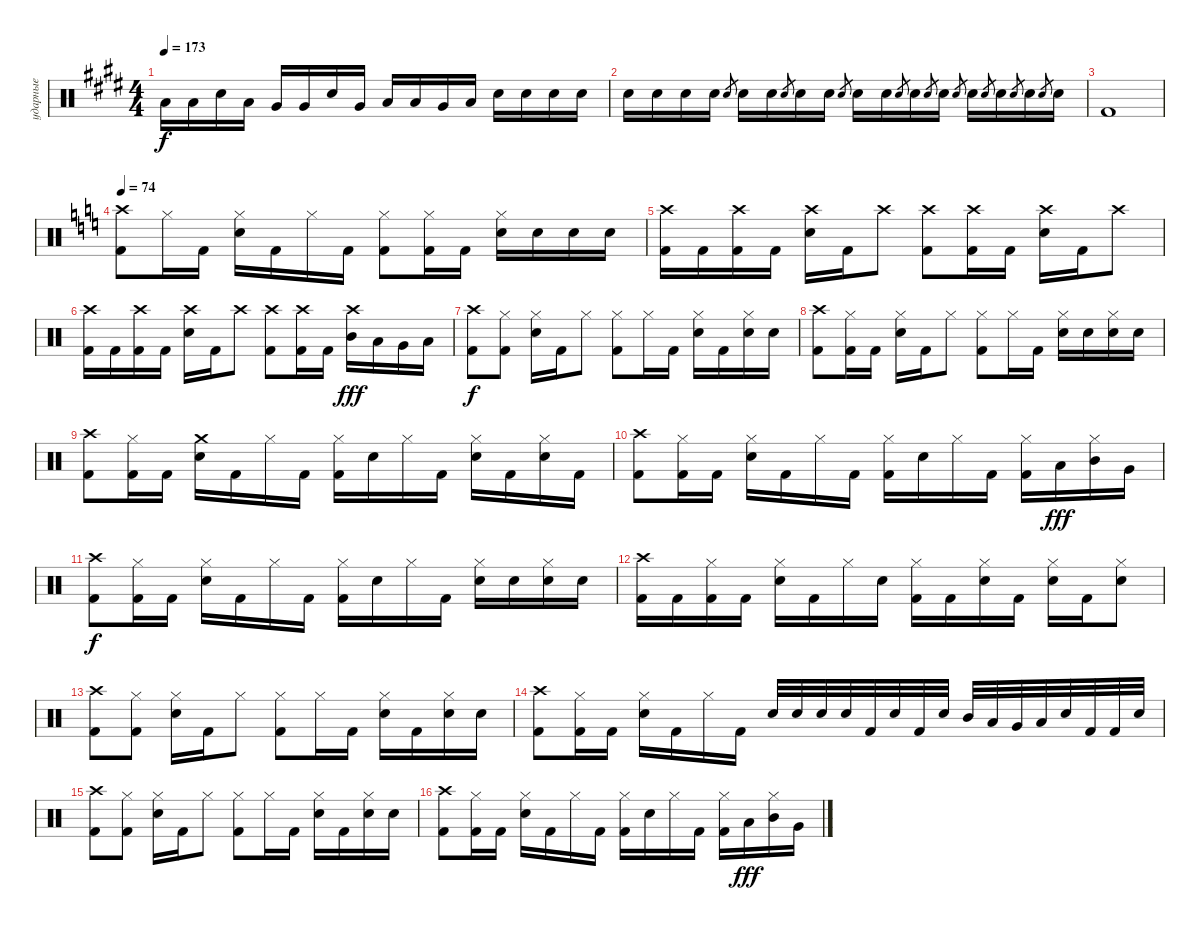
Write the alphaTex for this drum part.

\track ("ударные" "ударные") {instrument percussion}
\staff {score}
\articulation defaults
\ts (4 4)
\tempo 173
\clef neutral
\ks c#minor "Low Tom (hit)".16{dy f} "Low Tom (hit)".16 "Snare (hit) 2".16 "Low Tom (hit)".16 "Very Low Tom (hit)".16 "Very Low Tom (hit)".16 "Snare (hit) 2".16 "Very Low Tom (hit)".16 "Low Floor Tom (hit)".16 "Low Floor Tom (hit)".16 "Very Low Tom (hit)".16 "Low Floor Tom (hit)".16 "Snare (hit) 2".16 "Snare (hit) 2".16 "Snare (hit) 2".16 "Snare (hit) 2".16
|
"Snare (hit) 2".16 "Snare (hit) 2".16 "Snare (hit) 2".16 "Snare (hit) 2".16 "Snare (hit) 2".8{gr} "Snare (hit) 2".16 "Snare (hit) 2".16 "Snare (hit) 2".8{gr} "Snare (hit) 2".16 "Snare (hit) 2".16 "Snare (hit) 2".8{gr} "Snare (hit) 2".16 "Snare (hit) 2".16 "Snare (hit) 2".8{gr} "Snare (hit) 2".16 "Snare (hit) 2".8{gr} "Snare (hit) 2".16 "Snare (hit) 2".8{gr} "Snare (hit) 2".16 "Snare (hit) 2".8{gr} "Snare (hit) 2".16 "Snare (hit) 2".8{gr} "Snare (hit) 2".16 "Snare (hit) 2".8{gr} "Snare (hit) 2".16 |
"Kick (hit) 2".1 |
\tempo 74
\ks aminor
("Kick (hit) 2" "Crash high (hit)").8 "Hi-Hat (closed)".16 "Kick (hit) 2".16 ("Snare (hit) 2" "Hi-Hat (closed)").16 "Kick (hit) 2".16 "Hi-Hat (closed)".16 "Kick (hit) 2".16 ("Kick (hit) 2" "Hi-Hat (closed)").8 ("Kick (hit) 2" "Hi-Hat (closed)").16 "Kick (hit) 2".16 ("Snare (hit) 2" "Hi-Hat (closed)").16 "Snare (hit) 2".16 "Snare (hit) 2".16 "Snare (hit) 2".16 |
("Kick (hit) 2" "Crash high (hit)").16 "Kick (hit) 2".16 ("Crash high (hit)" "Kick (hit) 2").16 "Kick (hit) 2".16 ("Crash high (hit)" "Snare (hit) 2").16 "Kick (hit) 2".16 "Crash high (hit)".8 ("Kick (hit) 2" "Crash high (hit)").8 ("Kick (hit) 2" "Crash high (hit)").16 "Kick (hit) 2".16 ("Snare (hit) 2" "Crash high (hit)").16 "Kick (hit) 2".16 "Crash high (hit)".8 |
("Kick (hit) 2" "Crash high (hit)").16 "Kick (hit) 2".16 ("Crash high (hit)" "Kick (hit) 2").16 "Kick (hit) 2".16 ("Crash high (hit)" "Snare (hit) 2").16 "Kick (hit) 2".16 "Crash high (hit)".8 ("Kick (hit) 2" "Crash high (hit)").8 ("Kick (hit) 2" "Crash high (hit)").16 "Kick (hit) 2".16 ("Mid Tom (hit)" "Crash high (hit)").16{dy fff} "Low Tom (hit)".16 "Very Low Tom (hit)".16 "Low Floor Tom (hit)".16 |
("Kick (hit) 2" "Crash high (hit)").8{dy f} ("Kick (hit) 2" "Hi-Hat (closed)").8 ("Snare (hit) 2" "Hi-Hat (closed)").16 "Kick (hit) 2".16 "Hi-Hat (closed)".8 ("Kick (hit) 2" "Hi-Hat (closed)").8 "Hi-Hat (closed)".16 "Kick (hit) 2".16 ("Snare (hit) 2" "Hi-Hat (closed)").16 "Kick (hit) 2".16 ("Snare (hit) 2" "Hi-Hat (closed)").16 "Snare (hit) 2".16 |
("Kick (hit) 2" "Crash high (hit)").8 ("Kick (hit) 2" "Hi-Hat (closed)").16 "Kick (hit) 2".16 ("Snare (hit) 2" "Hi-Hat (closed)").16 "Kick (hit) 2".16 "Hi-Hat (closed)".8 ("Kick (hit) 2" "Hi-Hat (closed)").8 "Hi-Hat (closed)".16 "Kick (hit) 2".16 ("Snare (hit) 2" "Hi-Hat (closed)").16 "Snare (hit) 2".16 ("Snare (hit) 2" "Hi-Hat (closed)").16 "Snare (hit) 2".16 |
("Kick (hit) 2" "Crash high (hit)").8 ("Kick (hit) 2" "Hi-Hat (closed)").16 "Kick (hit) 2".16 ("Snare (hit) 2" "Crash medium (hit)").16 "Kick (hit) 2".16 "Hi-Hat (closed)".16 "Kick (hit) 2".16 ("Kick (hit) 2" "Hi-Hat (closed)").16 "Snare (hit) 2".16 "Hi-Hat (closed)".16 "Kick (hit) 2".16 ("Snare (hit) 2" "Hi-Hat (closed)").16 "Kick (hit) 2".16 ("Snare (hit) 2" "Hi-Hat (closed)").16 "Kick (hit) 2".16 |
("Kick (hit) 2" "Crash high (hit)").8 ("Kick (hit) 2" "Hi-Hat (closed)").16 "Kick (hit) 2".16 ("Snare (hit) 2" "Hi-Hat (closed)").16 "Kick (hit) 2".16 "Hi-Hat (closed)".16 "Kick (hit) 2".16 ("Kick (hit) 2" "Hi-Hat (closed)").16 "Snare (hit) 2".16 "Hi-Hat (closed)".16 "Kick (hit) 2".16 ("Kick (hit) 2" "Hi-Hat (closed)").16 "Low Tom (hit)".16{dy fff} ("Mid Tom (hit)" "Hi-Hat (closed)").16 "Very Low Tom (hit)".16 |
("Kick (hit) 2" "Crash high (hit)").8{dy f} ("Kick (hit) 2" "Hi-Hat (closed)").16 "Kick (hit) 2".16 ("Snare (hit) 2" "Hi-Hat (closed)").16 "Kick (hit) 2".16 "Hi-Hat (closed)".16 "Kick (hit) 2".16 ("Kick (hit) 2" "Hi-Hat (closed)").16 "Snare (hit) 2".16 "Hi-Hat (closed)".16 "Kick (hit) 2".16 ("Snare (hit) 2" "Hi-Hat (closed)").16 "Snare (hit) 2".16 ("Snare (hit) 2" "Hi-Hat (closed)").16 "Snare (hit) 2".16 |
("Kick (hit) 2" "Crash high (hit)").16 "Kick (hit) 2".16 ("Kick (hit) 2" "Hi-Hat (closed)").16 "Kick (hit) 2".16 ("Snare (hit) 2" "Hi-Hat (closed)").16 "Kick (hit) 2".16 "Hi-Hat (closed)".16 "Snare (hit) 2".16 ("Kick (hit) 2" "Hi-Hat (closed)").16 "Kick (hit) 2".16 ("Hi-Hat (closed)" "Snare (hit) 2").16 "Kick (hit) 2".16 ("Snare (hit) 2" "Hi-Hat (closed)").16 "Kick (hit) 2".16 ("Hi-Hat (closed)" "Snare (hit) 2").8 |
("Kick (hit) 2" "Crash high (hit)").8 ("Kick (hit) 2" "Hi-Hat (closed)").8 ("Snare (hit) 2" "Hi-Hat (closed)").16 "Kick (hit) 2".16 "Hi-Hat (closed)".8 ("Kick (hit) 2" "Hi-Hat (closed)").8 "Hi-Hat (closed)".16 "Kick (hit) 2".16 ("Snare (hit) 2" "Hi-Hat (closed)").16 "Kick (hit) 2".16 ("Snare (hit) 2" "Hi-Hat (closed)").16 "Snare (hit) 2".16 |
("Kick (hit) 2" "Crash high (hit)").8 ("Kick (hit) 2" "Hi-Hat (closed)").16 "Kick (hit) 2".16 ("Snare (hit) 2" "Hi-Hat (closed)").16 "Kick (hit) 2".16 "Hi-Hat (closed)".16 "Kick (hit) 2".16 "Snare (hit) 2".32 "Snare (hit) 2".32 "Snare (hit) 2".32 "Snare (hit) 2".32 "Kick (hit) 2".32 "Snare (hit) 2".32 "Kick (hit) 2".32 "Snare (hit) 2".32 "Mid Tom (hit)".32 "Low Tom (hit)".32 "Very Low Tom (hit)".32 "Low Floor Tom (hit)".32 "Snare (hit) 2".32 "Kick (hit) 2".32 "Kick (hit) 2".32 "Snare (hit) 2".32 |
("Kick (hit) 2" "Crash high (hit)").8 ("Kick (hit) 2" "Hi-Hat (closed)").8 ("Snare (hit) 2" "Hi-Hat (closed)").16 "Kick (hit) 2".16 "Hi-Hat (closed)".8 ("Kick (hit) 2" "Hi-Hat (closed)").8 "Hi-Hat (closed)".16 "Kick (hit) 2".16 ("Snare (hit) 2" "Hi-Hat (closed)").16 "Kick (hit) 2".16 ("Snare (hit) 2" "Hi-Hat (closed)").16 "Snare (hit) 2".16 |
("Kick (hit) 2" "Crash high (hit)").8 ("Kick (hit) 2" "Hi-Hat (closed)").16 "Kick (hit) 2".16 ("Snare (hit) 2" "Hi-Hat (closed)").16 "Kick (hit) 2".16 "Hi-Hat (closed)".16 "Kick (hit) 2".16 ("Kick (hit) 2" "Hi-Hat (closed)").16 "Snare (hit) 2".16 "Hi-Hat (closed)".16 "Kick (hit) 2".16 ("Kick (hit) 2" "Hi-Hat (closed)").16 "Low Tom (hit)".16{dy fff} ("Mid Tom (hit)" "Hi-Hat (closed)").16 "Very Low Tom (hit)".16
